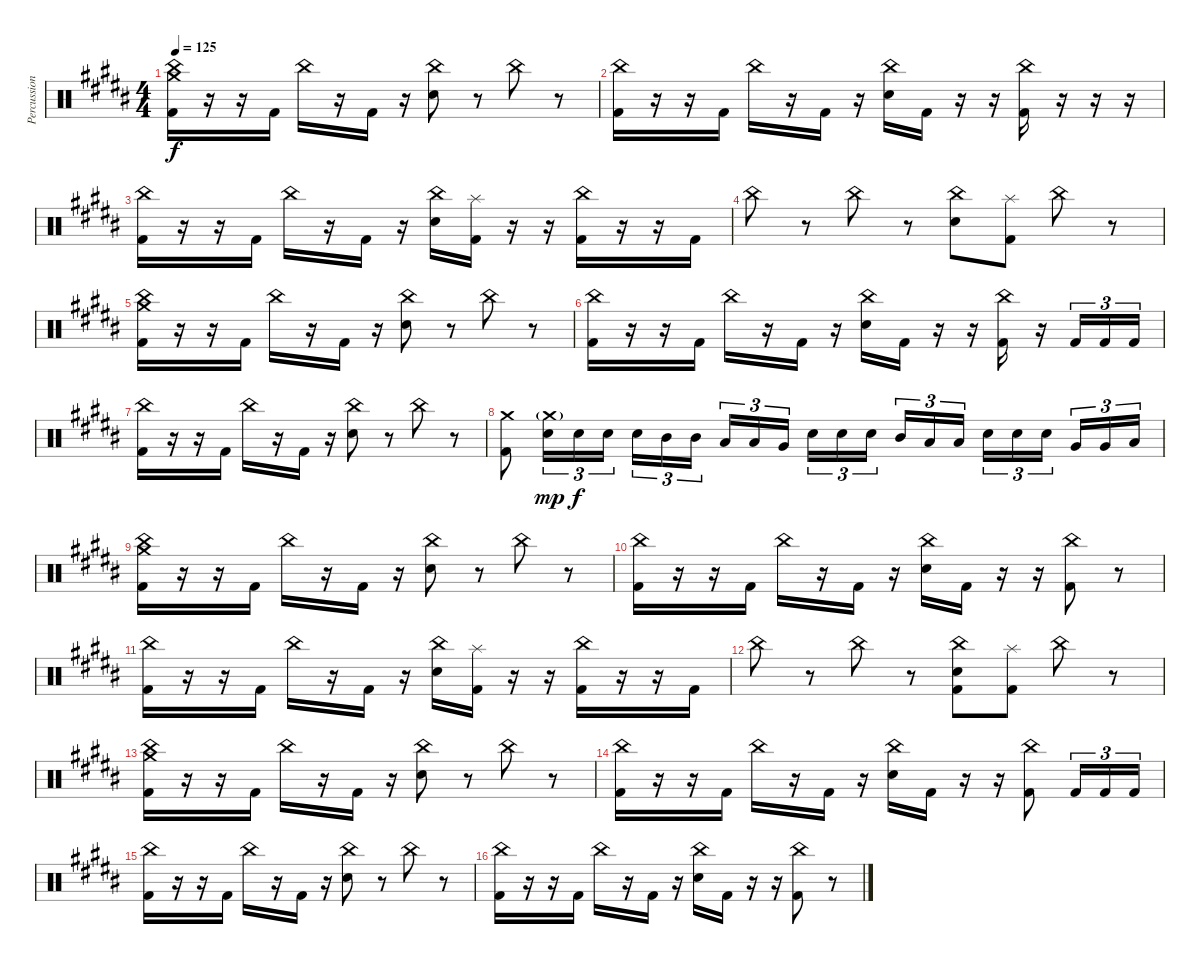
\track ("Percussion" "Percussion") {instrument percussion}
\staff {score}
\articulation defaults
\ts (4 4)
\tempo 125
\clef neutral
\ks g#minor
("Crash medium (hit)" "China (hit)" "Kick (hit) 2").16{dy f} r.16 r.16 "Kick (hit) 2".16 "China (hit)".16 r.16 "Kick (hit) 2".16 r.16 ("China (hit)" "Electric Snare (hit)").8 r.8 "China (hit)".8 r.8 |
("China (hit)" "Kick (hit) 2").16 r.16 r.16 "Kick (hit) 2".16 "China (hit)".16 r.16 "Kick (hit) 2".16 r.16 ("China (hit)" "Electric Snare (hit)").16 "Kick (hit) 2".16 r.16 r.16 ("China (hit)" "Kick (hit) 2").16 r.16 r.16 r.16 |
("China (hit)" "Kick (hit) 2").16 r.16 r.16 "Kick (hit) 2".16 "China (hit)".16 r.16 "Kick (hit) 2".16 r.16 ("China (hit)" "Electric Snare (hit)").16 ("Splash (hit)" "Kick (hit) 2").16 r.16 r.16 ("China (hit)" "Kick (hit) 2").16 r.16 r.16 "Kick (hit) 2".16 |
"China (hit)".8 r.8 "China (hit)".8 r.8 ("China (hit)" "Electric Snare (hit)").8 ("Splash (hit)" "Kick (hit) 2").8 "China (hit)".8 r.8 |
("Crash medium (hit)" "China (hit)" "Kick (hit) 2").16 r.16 r.16 "Kick (hit) 2".16 "China (hit)".16 r.16 "Kick (hit) 2".16 r.16 ("China (hit)" "Electric Snare (hit)").8 r.8 "China (hit)".8 r.8 |
("China (hit)" "Kick (hit) 2").16 r.16 r.16 "Kick (hit) 2".16 "China (hit)".16 r.16 "Kick (hit) 2".16 r.16 ("China (hit)" "Electric Snare (hit)").16 "Kick (hit) 2".16 r.16 r.16 ("China (hit)" "Kick (hit) 2").16 r.16 "Kick (hit) 2".16{tu (3 2)} "Kick (hit) 2".16{tu (3 2)} "Kick (hit) 2".16{tu (3 2)} |
("China (hit)" "Kick (hit) 2").16 r.16 r.16 "Kick (hit) 2".16 "China (hit)".16 r.16 "Kick (hit) 2".16 r.16 ("China (hit)" "Electric Snare (hit)").8 r.8 "China (hit)".8 r.8 |
("Crash medium (hit)" "Kick (hit) 2").8 ("Crash medium (hit)"{g} "Electric Snare (hit)").16{tu (3 2) dy mp} "Electric Snare (hit)".16{tu (3 2) dy f} "Electric Snare (hit)".16{tu (3 2)} "Electric Snare (hit)".16{tu (3 2)} "Mid Tom (hit)".16{tu (3 2)} "Mid Tom (hit)".16{tu (3 2) beam splitsecondary} "Low Tom (hit)".16{tu (3 2)} "Low Tom (hit)".16{tu (3 2)} "Very Low Tom (hit)".16{tu (3 2)} "Electric Snare (hit)".16{tu (3 2)} "Electric Snare (hit)".16{tu (3 2)} "Electric Snare (hit)".16{tu (3 2) beam splitsecondary} "Mid Tom (hit)".16{tu (3 2)} "Low Tom (hit)".16{tu (3 2)} "Low Tom (hit)".16{tu (3 2)} "Electric Snare (hit)".16{tu (3 2)} "Electric Snare (hit)".16{tu (3 2)} "Electric Snare (hit)".16{tu (3 2) beam splitsecondary} "Very Low Tom (hit)".16{tu (3 2)} "Very Low Tom (hit)".16{tu (3 2)} "Low Floor Tom (hit)".16{tu (3 2)} |
("Crash medium (hit)" "China (hit)" "Kick (hit) 2").16 r.16 r.16 "Kick (hit) 2".16 "China (hit)".16 r.16 "Kick (hit) 2".16 r.16 ("China (hit)" "Electric Snare (hit)").8 r.8 "China (hit)".8 r.8 |
("China (hit)" "Kick (hit) 2").16 r.16 r.16 "Kick (hit) 2".16 "China (hit)".16 r.16 "Kick (hit) 2".16 r.16 ("China (hit)" "Electric Snare (hit)").16 "Kick (hit) 2".16 r.16 r.16 ("China (hit)" "Kick (hit) 2").8 r.8 |
("China (hit)" "Kick (hit) 2").16 r.16 r.16 "Kick (hit) 2".16 "China (hit)".16 r.16 "Kick (hit) 2".16 r.16 ("China (hit)" "Electric Snare (hit)").16 ("Splash (hit)" "Kick (hit) 2").16 r.16 r.16 ("China (hit)" "Kick (hit) 2").16 r.16 r.16 "Kick (hit) 2".16 |
"China (hit)".8 r.8 "China (hit)".8 r.8 ("China (hit)" "Electric Snare (hit)" "Kick (hit) 2").8 ("Splash (hit)" "Kick (hit) 2").8 "China (hit)".8 r.8 |
("Crash medium (hit)" "China (hit)" "Kick (hit) 2").16 r.16 r.16 "Kick (hit) 2".16 "China (hit)".16 r.16 "Kick (hit) 2".16 r.16 ("China (hit)" "Electric Snare (hit)").8 r.8 "China (hit)".8 r.8 |
("China (hit)" "Kick (hit) 2").16 r.16 r.16 "Kick (hit) 2".16 "China (hit)".16 r.16 "Kick (hit) 2".16 r.16 ("China (hit)" "Electric Snare (hit)").16 "Kick (hit) 2".16 r.16 r.16 ("China (hit)" "Kick (hit) 2").8 "Kick (hit) 2".16{tu (3 2)} "Kick (hit) 2".16{tu (3 2)} "Kick (hit) 2".16{tu (3 2)} |
("China (hit)" "Kick (hit) 2").16 r.16 r.16 "Kick (hit) 2".16 "China (hit)".16 r.16 "Kick (hit) 2".16 r.16 ("China (hit)" "Electric Snare (hit)").8 r.8 "China (hit)".8 r.8 |
("China (hit)" "Kick (hit) 2").16 r.16 r.16 "Kick (hit) 2".16 "China (hit)".16 r.16 "Kick (hit) 2".16 r.16 ("China (hit)" "Electric Snare (hit)").16 "Kick (hit) 2".16 r.16 r.16 ("China (hit)" "Kick (hit) 2").8 r.8
